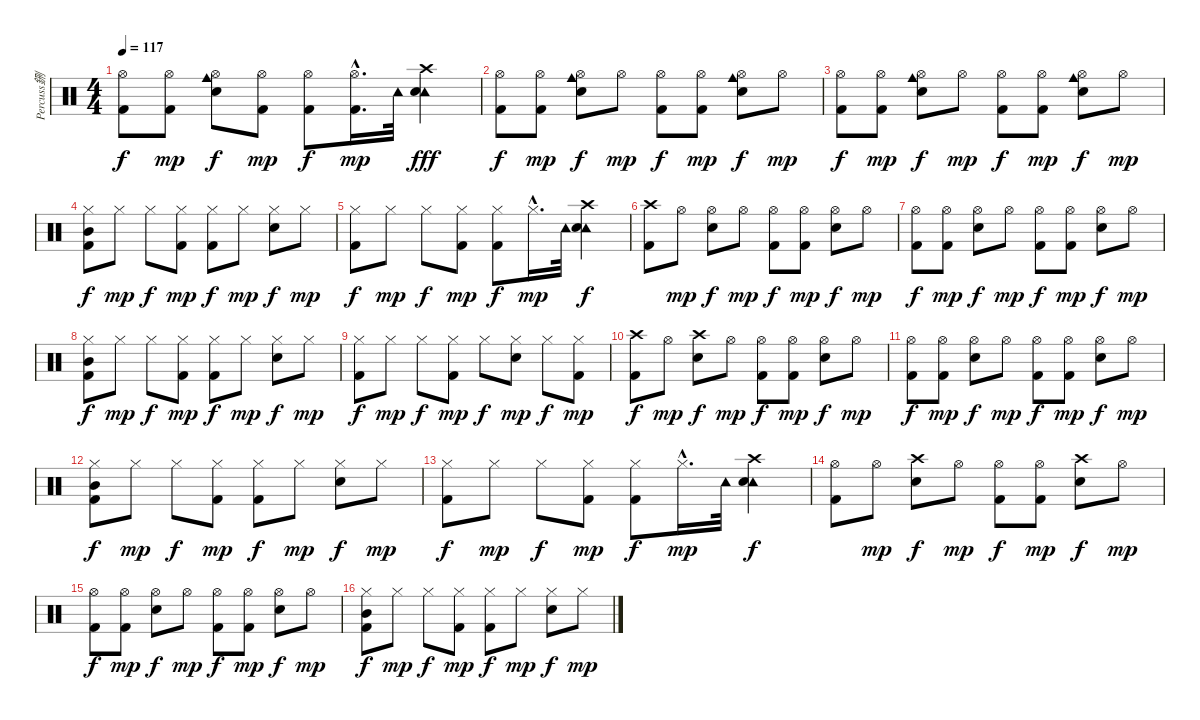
\track ("Percuss鉶" "Percuss鉶") {instrument percussion}
\staff {score}
\articulation defaults
\ts (4 4)
\tempo 117
\clef neutral
\ks c
("Hi-Hat (open)" "Kick (hit) 2").8{dy f} ("Hi-Hat (open)" "Kick (hit) 2").8{dy mp} ("Cowbell medium (hit)" "Hi-Hat (open)" "Snare (hit) 2").8{dy f} ("Hi-Hat (open)" "Kick (hit) 2").8{dy mp} ("Hi-Hat (open)" "Kick (hit) 2").8{dy f} ("Hi-Hat (open)"{hac} "Kick (hit) 2"{hac}).16{d dy mp} "Tambourine (hit)".32 ("Crash high (hit)" "Tambourine (hit)" "Snare (hit) 2").4{dy fff} |
("Hi-Hat (open)" "Kick (hit) 2").8{dy f} ("Hi-Hat (open)" "Kick (hit) 2").8{dy mp} ("Cowbell medium (hit)" "Hi-Hat (open)" "Snare (hit) 2").8{dy f} "Hi-Hat (open)".8{dy mp} ("Hi-Hat (open)" "Kick (hit) 2").8{dy f} ("Hi-Hat (open)" "Kick (hit) 2").8{dy mp} ("Cowbell medium (hit)" "Hi-Hat (open)" "Snare (hit) 2").8{dy f} "Hi-Hat (open)".8{dy mp} |
("Hi-Hat (open)" "Kick (hit) 2").8{dy f} ("Hi-Hat (open)" "Kick (hit) 2").8{dy mp} ("Cowbell medium (hit)" "Hi-Hat (open)" "Snare (hit) 2").8{dy f} "Hi-Hat (open)".8{dy mp} ("Hi-Hat (open)" "Kick (hit) 2").8{dy f} ("Hi-Hat (open)" "Kick (hit) 2").8{dy mp} ("Cowbell medium (hit)" "Hi-Hat (open)" "Snare (hit) 2").8{dy f} "Hi-Hat (open)".8{dy mp} |
("Hi-Hat (closed)" "Mid Tom (hit)" "Kick (hit) 2").8{dy f} "Hi-Hat (closed)".8{dy mp} "Hi-Hat (closed)".8{dy f} ("Hi-Hat (closed)" "Kick (hit) 2").8{dy mp} ("Hi-Hat (closed)" "Kick (hit) 2").8{dy f} "Hi-Hat (closed)".8{dy mp} ("Hi-Hat (closed)" "Snare (hit) 2").8{dy f} "Hi-Hat (closed)".8{dy mp} |
("Hi-Hat (closed)" "Kick (hit) 2").8{dy f} "Hi-Hat (closed)".8{dy mp} "Hi-Hat (closed)".8{dy f} ("Hi-Hat (closed)" "Kick (hit) 2").8{dy mp} ("Hi-Hat (closed)" "Kick (hit) 2").8{dy f} "Hi-Hat (closed)"{hac}.16{d dy mp} "Tambourine (hit)".32 ("Crash high (hit)" "Tambourine (hit)" "Snare (hit) 2").4{dy f} |
("Crash high (hit)" "Kick (hit) 2").8 "Hi-Hat (open)".8{dy mp} ("Hi-Hat (open)" "Snare (hit) 2").8{dy f} "Hi-Hat (open)".8{dy mp} ("Hi-Hat (open)" "Kick (hit) 2").8{dy f} ("Hi-Hat (open)" "Kick (hit) 2").8{dy mp} ("Hi-Hat (open)" "Snare (hit) 2").8{dy f} "Hi-Hat (open)".8{dy mp} |
("Hi-Hat (open)" "Kick (hit) 2").8{dy f} ("Hi-Hat (open)" "Kick (hit) 2").8{dy mp} ("Hi-Hat (open)" "Snare (hit) 2").8{dy f} "Hi-Hat (open)".8{dy mp} ("Hi-Hat (open)" "Kick (hit) 2").8{dy f} ("Hi-Hat (open)" "Kick (hit) 2").8{dy mp} ("Hi-Hat (open)" "Snare (hit) 2").8{dy f} "Hi-Hat (open)".8{dy mp} |
("Hi-Hat (closed)" "Mid Tom (hit)" "Kick (hit) 2").8{dy f} "Hi-Hat (closed)".8{dy mp} "Hi-Hat (closed)".8{dy f} ("Hi-Hat (closed)" "Kick (hit) 2").8{dy mp} ("Hi-Hat (closed)" "Kick (hit) 2").8{dy f} "Hi-Hat (closed)".8{dy mp} ("Hi-Hat (closed)" "Snare (hit) 2").8{dy f} "Hi-Hat (closed)".8{dy mp} |
("Hi-Hat (closed)" "Kick (hit) 2").8{dy f} "Hi-Hat (closed)".8{dy mp} "Hi-Hat (closed)".8{dy f} ("Hi-Hat (closed)" "Kick (hit) 2").8{dy mp} "Hi-Hat (closed)".8{dy f} ("Hi-Hat (closed)" "Snare (hit) 2").8{dy mp} "Hi-Hat (closed)".8{dy f} ("Hi-Hat (closed)" "Kick (hit) 2").8{dy mp} |
("Crash high (hit)" "Kick (hit) 2").8{dy f} "Hi-Hat (open)".8{dy mp} ("Crash high (hit)" "Snare (hit) 2").8{dy f} "Hi-Hat (open)".8{dy mp} ("Hi-Hat (open)" "Kick (hit) 2").8{dy f} ("Hi-Hat (open)" "Kick (hit) 2").8{dy mp} ("Hi-Hat (open)" "Snare (hit) 2").8{dy f} "Hi-Hat (open)".8{dy mp} |
("Hi-Hat (open)" "Kick (hit) 2").8{dy f} ("Hi-Hat (open)" "Kick (hit) 2").8{dy mp} ("Hi-Hat (open)" "Snare (hit) 2").8{dy f} "Hi-Hat (open)".8{dy mp} ("Hi-Hat (open)" "Kick (hit) 2").8{dy f} ("Hi-Hat (open)" "Kick (hit) 2").8{dy mp} ("Hi-Hat (open)" "Snare (hit) 2").8{dy f} "Hi-Hat (open)".8{dy mp} |
("Hi-Hat (closed)" "Mid Tom (hit)" "Kick (hit) 2").8{dy f} "Hi-Hat (closed)".8{dy mp} "Hi-Hat (closed)".8{dy f} ("Hi-Hat (closed)" "Kick (hit) 2").8{dy mp} ("Hi-Hat (closed)" "Kick (hit) 2").8{dy f} "Hi-Hat (closed)".8{dy mp} ("Hi-Hat (closed)" "Snare (hit) 2").8{dy f} "Hi-Hat (closed)".8{dy mp} |
("Hi-Hat (closed)" "Kick (hit) 2").8{dy f} "Hi-Hat (closed)".8{dy mp} "Hi-Hat (closed)".8{dy f} ("Hi-Hat (closed)" "Kick (hit) 2").8{dy mp} ("Hi-Hat (closed)" "Kick (hit) 2").8{dy f} "Hi-Hat (closed)"{hac}.16{d dy mp} "Tambourine (hit)".32 ("Crash high (hit)" "Tambourine (hit)" "Snare (hit) 2").4{dy f} |
("Hi-Hat (open)" "Kick (hit) 2").8 "Hi-Hat (open)".8{dy mp} ("Crash high (hit)" "Snare (hit) 2").8{dy f} "Hi-Hat (open)".8{dy mp} ("Hi-Hat (open)" "Kick (hit) 2").8{dy f} ("Hi-Hat (open)" "Kick (hit) 2").8{dy mp} ("Crash high (hit)" "Snare (hit) 2").8{dy f} "Hi-Hat (open)".8{dy mp} |
("Hi-Hat (open)" "Kick (hit) 2").8{dy f} ("Hi-Hat (open)" "Kick (hit) 2").8{dy mp} ("Hi-Hat (open)" "Snare (hit) 2").8{dy f} "Hi-Hat (open)".8{dy mp} ("Hi-Hat (open)" "Kick (hit) 2").8{dy f} ("Hi-Hat (open)" "Kick (hit) 2").8{dy mp} ("Hi-Hat (open)" "Snare (hit) 2").8{dy f} "Hi-Hat (open)".8{dy mp} |
("Hi-Hat (closed)" "Mid Tom (hit)" "Kick (hit) 2").8{dy f} "Hi-Hat (closed)".8{dy mp} "Hi-Hat (closed)".8{dy f} ("Hi-Hat (closed)" "Kick (hit) 2").8{dy mp} ("Hi-Hat (closed)" "Kick (hit) 2").8{dy f} "Hi-Hat (closed)".8{dy mp} ("Hi-Hat (closed)" "Snare (hit) 2").8{dy f} "Hi-Hat (closed)".8{dy mp}
